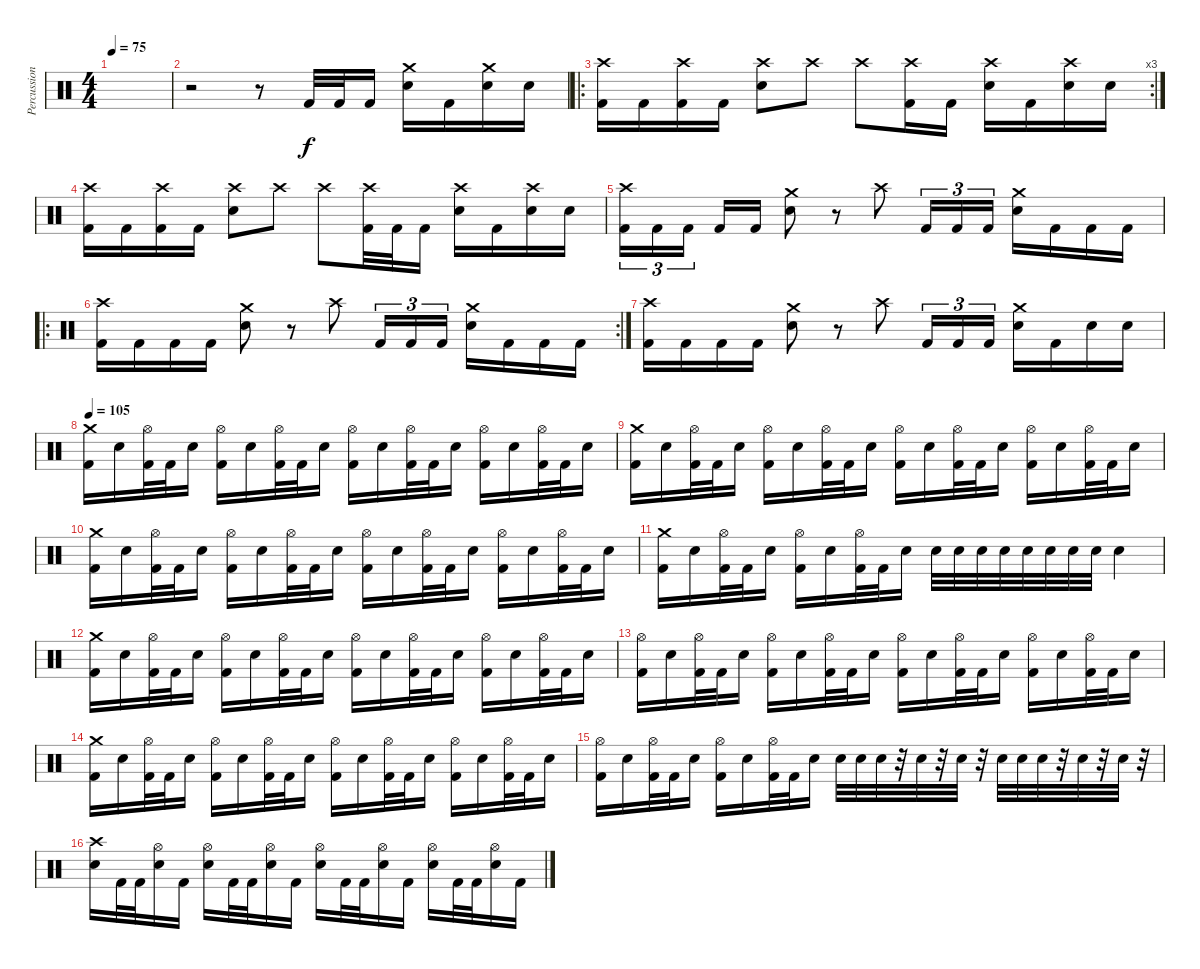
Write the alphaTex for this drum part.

\track ("Percussion" "Percussion") {instrument percussion}
\staff {score}
\articulation defaults
\ts (4 4)
\tempo 75
\clef neutral
\ks c
|
r.2 r.8 "Kick (hit) 2".32 "Kick (hit) 2".32 "Kick (hit) 2".16 ("Crash medium (hit)" "Electric Snare (hit)").16 "Kick (hit) 2".16 ("Crash medium (hit)" "Electric Snare (hit)").16 "Electric Snare (hit)".16 |
\ro
\rc 3
("Crash high (hit)" "Kick (hit) 2").16 "Kick (hit) 2".16 ("Crash high (hit)" "Kick (hit) 2").16 "Kick (hit) 2".16 ("Crash high (hit)" "Electric Snare (hit)").8 "Crash high (hit)".8 "Crash high (hit)".8 ("Crash high (hit)" "Kick (hit) 2").16 "Kick (hit) 2".16 ("Crash high (hit)" "Electric Snare (hit)").16 "Kick (hit) 2".16 ("Crash high (hit)" "Electric Snare (hit)").16 "Electric Snare (hit)".16 |
("Crash high (hit)" "Kick (hit) 2").16 "Kick (hit) 2".16 ("Crash high (hit)" "Kick (hit) 2").16 "Kick (hit) 2".16 ("Crash high (hit)" "Electric Snare (hit)").8 "Crash high (hit)".8 "Crash high (hit)".8 ("Crash high (hit)" "Kick (hit) 2").32 "Kick (hit) 2".32 "Kick (hit) 2".16 ("Crash high (hit)" "Electric Snare (hit)").16 "Kick (hit) 2".16 ("Crash high (hit)" "Electric Snare (hit)").16 "Electric Snare (hit)".16 |
("Crash high (hit)" "Kick (hit) 2").16{tu (3 2)} "Kick (hit) 2".16{tu (3 2)} "Kick (hit) 2".16{tu (3 2) beam splitsecondary} "Kick (hit) 2".16 "Kick (hit) 2".16 ("Crash medium (hit)" "Electric Snare (hit)").8 r.8 "Crash high (hit)".8 "Kick (hit) 2".16{tu (3 2)} "Kick (hit) 2".16{tu (3 2)} "Kick (hit) 2".16{tu (3 2)} ("Crash medium (hit)" "Electric Snare (hit)").16 "Kick (hit) 2".16 "Kick (hit) 2".16 "Kick (hit) 2".16 |
\ro
\rc 2
("Crash high (hit)" "Kick (hit) 2").16 "Kick (hit) 2".16 "Kick (hit) 2".16 "Kick (hit) 2".16 ("Crash medium (hit)" "Electric Snare (hit)").8 r.8 "Crash high (hit)".8 "Kick (hit) 2".16{tu (3 2)} "Kick (hit) 2".16{tu (3 2)} "Kick (hit) 2".16{tu (3 2)} ("Crash medium (hit)" "Electric Snare (hit)").16 "Kick (hit) 2".16 "Kick (hit) 2".16 "Kick (hit) 2".16 |
("Crash high (hit)" "Kick (hit) 2").16 "Kick (hit) 2".16 "Kick (hit) 2".16 "Kick (hit) 2".16 ("Crash medium (hit)" "Electric Snare (hit)").8 r.8 "Crash high (hit)".8 "Kick (hit) 2".16{tu (3 2)} "Kick (hit) 2".16{tu (3 2)} "Kick (hit) 2".16{tu (3 2)} ("Crash medium (hit)" "Electric Snare (hit)").16 "Kick (hit) 2".16 "Electric Snare (hit)".16 "Electric Snare (hit)".16 |
\tempo 105
("Crash medium (hit)" "Kick (hit) 2").16 "Electric Snare (hit)".16 ("Hi-Hat (open)" "Kick (hit) 2").32 "Kick (hit) 2".32 "Electric Snare (hit)".16 ("Hi-Hat (open)" "Kick (hit) 2").16 "Electric Snare (hit)".16 ("Hi-Hat (open)" "Kick (hit) 2").32 "Kick (hit) 2".32 "Electric Snare (hit)".16 ("Hi-Hat (open)" "Kick (hit) 2").16 "Electric Snare (hit)".16 ("Hi-Hat (open)" "Kick (hit) 2").32 "Kick (hit) 2".32 "Electric Snare (hit)".16 ("Hi-Hat (open)" "Kick (hit) 2").16 "Electric Snare (hit)".16 ("Hi-Hat (open)" "Kick (hit) 2").32 "Kick (hit) 2".32 "Electric Snare (hit)".16 |
("Crash medium (hit)" "Kick (hit) 2").16 "Electric Snare (hit)".16 ("Hi-Hat (open)" "Kick (hit) 2").32 "Kick (hit) 2".32 "Electric Snare (hit)".16 ("Hi-Hat (open)" "Kick (hit) 2").16 "Electric Snare (hit)".16 ("Hi-Hat (open)" "Kick (hit) 2").32 "Kick (hit) 2".32 "Electric Snare (hit)".16 ("Hi-Hat (open)" "Kick (hit) 2").16 "Electric Snare (hit)".16 ("Hi-Hat (open)" "Kick (hit) 2").32 "Kick (hit) 2".32 "Electric Snare (hit)".16 ("Hi-Hat (open)" "Kick (hit) 2").16 "Electric Snare (hit)".16 ("Hi-Hat (open)" "Kick (hit) 2").32 "Kick (hit) 2".32 "Electric Snare (hit)".16 |
("Crash medium (hit)" "Kick (hit) 2").16 "Electric Snare (hit)".16 ("Hi-Hat (open)" "Kick (hit) 2").32 "Kick (hit) 2".32 "Electric Snare (hit)".16 ("Hi-Hat (open)" "Kick (hit) 2").16 "Electric Snare (hit)".16 ("Hi-Hat (open)" "Kick (hit) 2").32 "Kick (hit) 2".32 "Electric Snare (hit)".16 ("Hi-Hat (open)" "Kick (hit) 2").16 "Electric Snare (hit)".16 ("Hi-Hat (open)" "Kick (hit) 2").32 "Kick (hit) 2".32 "Electric Snare (hit)".16 ("Hi-Hat (open)" "Kick (hit) 2").16 "Electric Snare (hit)".16 ("Hi-Hat (open)" "Kick (hit) 2").32 "Kick (hit) 2".32 "Electric Snare (hit)".16 |
("Crash medium (hit)" "Kick (hit) 2").16 "Electric Snare (hit)".16 ("Hi-Hat (open)" "Kick (hit) 2").32 "Kick (hit) 2".32 "Electric Snare (hit)".16 ("Hi-Hat (open)" "Kick (hit) 2").16 "Electric Snare (hit)".16 ("Hi-Hat (open)" "Kick (hit) 2").32 "Kick (hit) 2".32 "Electric Snare (hit)".16 "Electric Snare (hit)".32 "Electric Snare (hit)".32 "Electric Snare (hit)".32 "Electric Snare (hit)".32 "Electric Snare (hit)".32 "Electric Snare (hit)".32 "Electric Snare (hit)".32 "Electric Snare (hit)".32 "Electric Snare (hit)".4 |
("Crash medium (hit)" "Kick (hit) 2").16 "Electric Snare (hit)".16 ("Hi-Hat (open)" "Kick (hit) 2").32 "Kick (hit) 2".32 "Electric Snare (hit)".16 ("Hi-Hat (open)" "Kick (hit) 2").16 "Electric Snare (hit)".16 ("Hi-Hat (open)" "Kick (hit) 2").32 "Kick (hit) 2".32 "Electric Snare (hit)".16 ("Hi-Hat (open)" "Kick (hit) 2").16 "Electric Snare (hit)".16 ("Hi-Hat (open)" "Kick (hit) 2").32 "Kick (hit) 2".32 "Electric Snare (hit)".16 ("Hi-Hat (open)" "Kick (hit) 2").16 "Electric Snare (hit)".16 ("Hi-Hat (open)" "Kick (hit) 2").32 "Kick (hit) 2".32 "Electric Snare (hit)".16 |
("Hi-Hat (open)" "Kick (hit) 2").16 "Electric Snare (hit)".16 ("Hi-Hat (open)" "Kick (hit) 2").32 "Kick (hit) 2".32 "Electric Snare (hit)".16 ("Hi-Hat (open)" "Kick (hit) 2").16 "Electric Snare (hit)".16 ("Hi-Hat (open)" "Kick (hit) 2").32 "Kick (hit) 2".32 "Electric Snare (hit)".16 ("Hi-Hat (open)" "Kick (hit) 2").16 "Electric Snare (hit)".16 ("Hi-Hat (open)" "Kick (hit) 2").32 "Kick (hit) 2".32 "Electric Snare (hit)".16 ("Hi-Hat (open)" "Kick (hit) 2").16 "Electric Snare (hit)".16 ("Hi-Hat (open)" "Kick (hit) 2").32 "Kick (hit) 2".32 "Electric Snare (hit)".16 |
("Crash medium (hit)" "Kick (hit) 2").16 "Electric Snare (hit)".16 ("Hi-Hat (open)" "Kick (hit) 2").32 "Kick (hit) 2".32 "Electric Snare (hit)".16 ("Hi-Hat (open)" "Kick (hit) 2").16 "Electric Snare (hit)".16 ("Hi-Hat (open)" "Kick (hit) 2").32 "Kick (hit) 2".32 "Electric Snare (hit)".16 ("Hi-Hat (open)" "Kick (hit) 2").16 "Electric Snare (hit)".16 ("Hi-Hat (open)" "Kick (hit) 2").32 "Kick (hit) 2".32 "Electric Snare (hit)".16 ("Hi-Hat (open)" "Kick (hit) 2").16 "Electric Snare (hit)".16 ("Hi-Hat (open)" "Kick (hit) 2").32 "Kick (hit) 2".32 "Electric Snare (hit)".16 |
("Hi-Hat (open)" "Kick (hit) 2").16 "Electric Snare (hit)".16 ("Hi-Hat (open)" "Kick (hit) 2").32 "Kick (hit) 2".32 "Electric Snare (hit)".16 ("Hi-Hat (open)" "Kick (hit) 2").16 "Electric Snare (hit)".16 ("Hi-Hat (open)" "Kick (hit) 2").32 "Kick (hit) 2".32 "Electric Snare (hit)".16 "Electric Snare (hit)".32 "Electric Snare (hit)".32 "Electric Snare (hit)".32 r.32 "Electric Snare (hit)".32 r.32 "Electric Snare (hit)".32 r.32 "Electric Snare (hit)".32 "Electric Snare (hit)".32 "Electric Snare (hit)".32 r.32 "Electric Snare (hit)".32 r.32 "Electric Snare (hit)".32 r.32 |
("Crash high (hit)" "Electric Snare (hit)").16 "Kick (hit) 2".32 "Kick (hit) 2".32 ("Hi-Hat (open)" "Electric Snare (hit)").16 "Kick (hit) 2".16 ("Hi-Hat (open)" "Electric Snare (hit)").16 "Kick (hit) 2".32 "Kick (hit) 2".32 ("Hi-Hat (open)" "Electric Snare (hit)").16 "Kick (hit) 2".16 ("Hi-Hat (open)" "Electric Snare (hit)").16 "Kick (hit) 2".32 "Kick (hit) 2".32 ("Hi-Hat (open)" "Electric Snare (hit)").16 "Kick (hit) 2".16 ("Hi-Hat (open)" "Electric Snare (hit)").16 "Kick (hit) 2".32 "Kick (hit) 2".32 ("Hi-Hat (open)" "Electric Snare (hit)").16 "Kick (hit) 2".16
